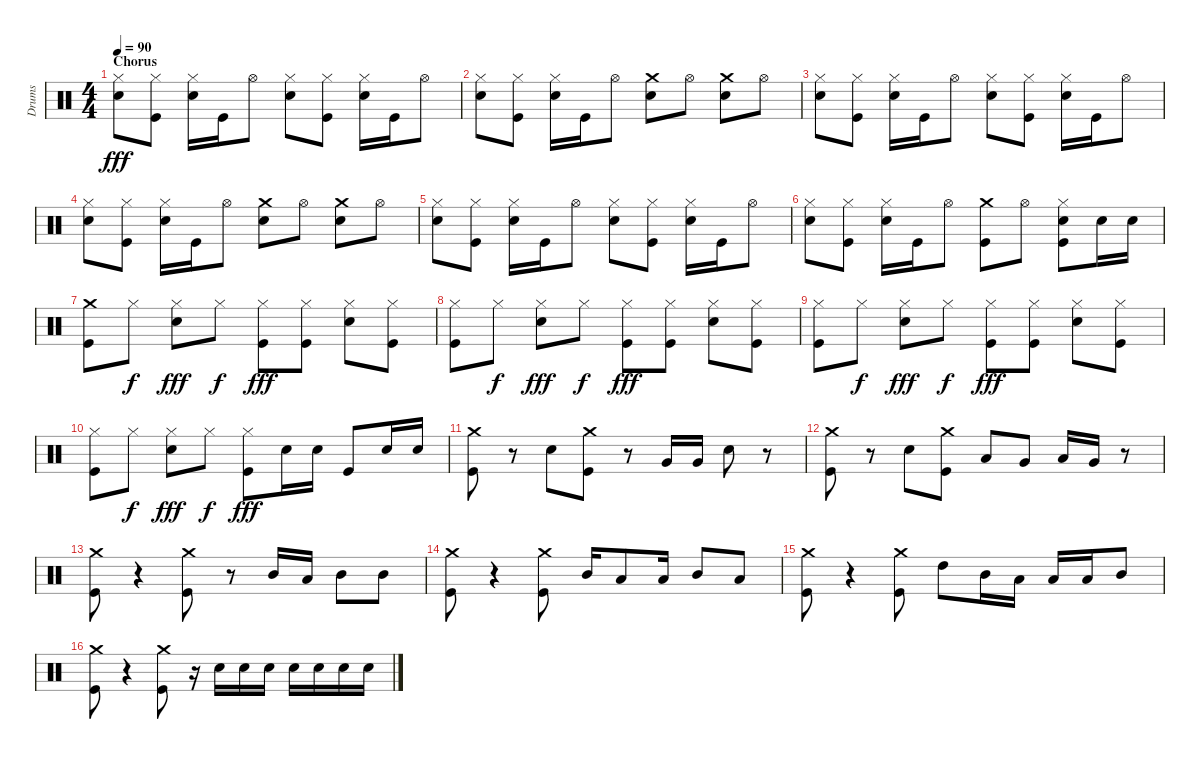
\track ("Drums" "Drums") {instrument percussion}
\staff {score}
\articulation defaults
\ts (4 4)
\section ("" "Chorus")
\tempo 90
\clef neutral
\ks c
("Hi-Hat (closed)" "Snare (hit) 2").8{dy fff} ("Hi-Hat (closed)" "Kick (hit)").8 ("Hi-Hat (closed)" "Snare (hit) 2").16 "Kick (hit)".16 "Hi-Hat (open)".8 ("Hi-Hat (closed)" "Snare (hit) 2").8 ("Hi-Hat (closed)" "Kick (hit)").8 ("Hi-Hat (closed)" "Snare (hit) 2").16 "Kick (hit)".16 "Hi-Hat (open)".8 |
("Hi-Hat (closed)" "Snare (hit) 2").8 ("Hi-Hat (closed)" "Kick (hit)").8 ("Hi-Hat (closed)" "Snare (hit) 2").16 "Kick (hit)".16 "Hi-Hat (open)".8 ("Snare (hit) 2" "Crash medium (hit)").8 "Hi-Hat (open)".8 ("Snare (hit) 2" "Crash medium (hit)").8 "Hi-Hat (open)".8 |
("Hi-Hat (closed)" "Snare (hit) 2").8 ("Hi-Hat (closed)" "Kick (hit)").8 ("Hi-Hat (closed)" "Snare (hit) 2").16 "Kick (hit)".16 "Hi-Hat (open)".8 ("Hi-Hat (closed)" "Snare (hit) 2").8 ("Hi-Hat (closed)" "Kick (hit)").8 ("Hi-Hat (closed)" "Snare (hit) 2").16 "Kick (hit)".16 "Hi-Hat (open)".8 |
("Hi-Hat (closed)" "Snare (hit) 2").8 ("Hi-Hat (closed)" "Kick (hit)").8 ("Hi-Hat (closed)" "Snare (hit) 2").16 "Kick (hit)".16 "Hi-Hat (open)".8 ("Snare (hit) 2" "Crash medium (hit)").8 "Hi-Hat (open)".8 ("Snare (hit) 2" "Crash medium (hit)").8 "Hi-Hat (open)".8 |
("Hi-Hat (closed)" "Snare (hit) 2").8 ("Hi-Hat (closed)" "Kick (hit)").8 ("Hi-Hat (closed)" "Snare (hit) 2").16 "Kick (hit)".16 "Hi-Hat (open)".8 ("Hi-Hat (closed)" "Snare (hit) 2").8 ("Hi-Hat (closed)" "Kick (hit)").8 ("Hi-Hat (closed)" "Snare (hit) 2").16 "Kick (hit)".16 "Hi-Hat (open)".8 |
("Hi-Hat (closed)" "Snare (hit) 2").8 ("Hi-Hat (closed)" "Kick (hit)").8 ("Hi-Hat (closed)" "Snare (hit) 2").16 "Kick (hit)".16 "Hi-Hat (open)".8 ("Crash medium (hit)" "Kick (hit)").8 "Hi-Hat (open)".8 ("Hi-Hat (closed)" "Snare (hit) 2" "Kick (hit)").8 "Snare (hit) 2".16 "Snare (hit) 2".16 |
("Crash medium (hit)" "Kick (hit)").8 "Hi-Hat (closed)".8{dy f} ("Hi-Hat (closed)" "Snare (hit) 2").8{dy fff} "Hi-Hat (closed)".8{dy f} ("Hi-Hat (closed)" "Kick (hit)").8{dy fff} ("Hi-Hat (closed)" "Kick (hit)").8 ("Hi-Hat (closed)" "Snare (hit) 2").8 ("Hi-Hat (closed)" "Kick (hit)").8 |
("Hi-Hat (closed)" "Kick (hit)").8 "Hi-Hat (closed)".8{dy f} ("Hi-Hat (closed)" "Snare (hit) 2").8{dy fff} "Hi-Hat (closed)".8{dy f} ("Hi-Hat (closed)" "Kick (hit)").8{dy fff} ("Hi-Hat (closed)" "Kick (hit)").8 ("Hi-Hat (closed)" "Snare (hit) 2").8 ("Hi-Hat (closed)" "Kick (hit)").8 |
("Hi-Hat (closed)" "Kick (hit)").8 "Hi-Hat (closed)".8{dy f} ("Hi-Hat (closed)" "Snare (hit) 2").8{dy fff} "Hi-Hat (closed)".8{dy f} ("Hi-Hat (closed)" "Kick (hit)").8{dy fff} ("Hi-Hat (closed)" "Kick (hit)").8 ("Hi-Hat (closed)" "Snare (hit) 2").8 ("Hi-Hat (closed)" "Kick (hit)").8 |
("Hi-Hat (closed)" "Kick (hit)").8 "Hi-Hat (closed)".8{dy f} ("Hi-Hat (closed)" "Snare (hit) 2").8{dy fff} "Hi-Hat (closed)".8{dy f} ("Hi-Hat (closed)" "Kick (hit)").8{dy fff} "Snare (hit) 2".16 "Snare (hit) 2".16 "Kick (hit)".8 "Snare (hit) 2".16 "Snare (hit) 2".16 |
("Crash medium (hit)" "Kick (hit)").8 r.8 "Snare (hit) 2".8 ("Crash medium (hit)" "Kick (hit)").8 r.8 "Very Low Tom (hit)".16 "Very Low Tom (hit)".16 "Snare (hit) 2".8 r.8 |
("Crash medium (hit)" "Kick (hit)").8 r.8 "Snare (hit) 2".8 ("Crash medium (hit)" "Kick (hit)").8 "Low Tom (hit)".8 "Very Low Tom (hit)".8 "Low Tom (hit)".16 "Very Low Tom (hit)".16 r.8 |
("Crash medium (hit)" "Kick (hit)").8 r.4 ("Crash medium (hit)" "Kick (hit)").8 r.8 "Mid Tom (hit)".16 "Low Tom (hit)".16 "Mid Tom (hit)".8 "Mid Tom (hit)".8 |
("Crash medium (hit)" "Kick (hit)").8 r.4 ("Crash medium (hit)" "Kick (hit)").8 "Mid Tom (hit)".16 "Low Tom (hit)".8 "Low Tom (hit)".16 "Mid Tom (hit)".8 "Low Tom (hit)".8 |
("Crash medium (hit)" "Kick (hit)").8 r.4 ("Crash medium (hit)" "Kick (hit)").8 "High Tom (hit)".8 "Mid Tom (hit)".16 "Low Tom (hit)".16 "Low Tom (hit)".16 "Low Tom (hit)".16 "Mid Tom (hit)".8 |
("Crash medium (hit)" "Kick (hit)").8 r.4 ("Crash medium (hit)" "Kick (hit)").8 r.16 "Snare (hit) 2".16 "Snare (hit) 2".16 "Snare (hit) 2".16 "Snare (hit) 2".16 "Snare (hit) 2".16 "Snare (hit) 2".16 "Snare (hit) 2".16
